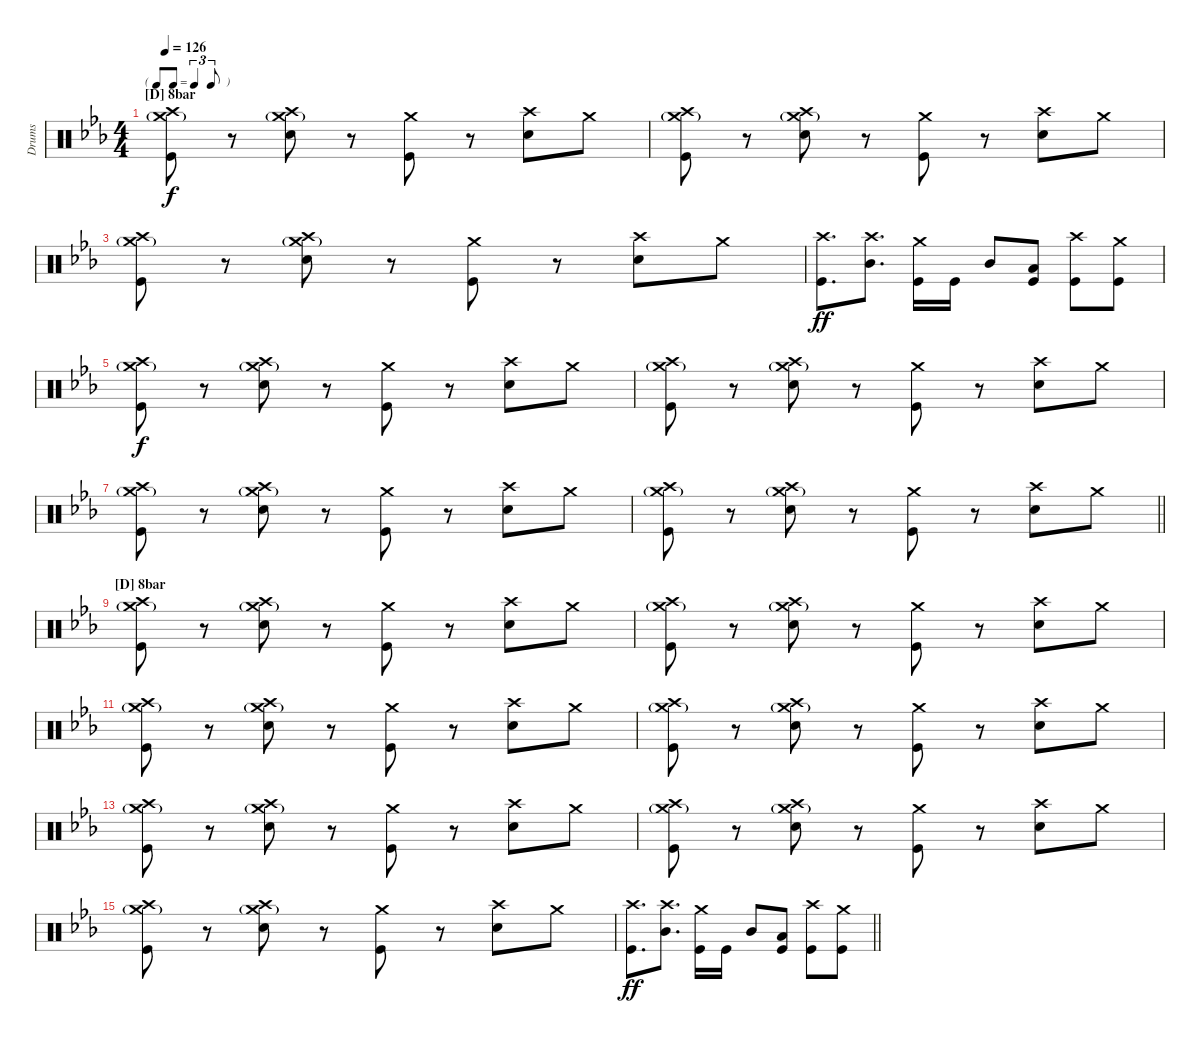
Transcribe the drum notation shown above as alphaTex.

\bracketExtendMode nobrackets
\otherSystemsTrackNameOrientation horizontal
\defaultBarNumberDisplay FirstOfSystem
\track ("Drumkit" "Drums") {instrument percussion}
\staff {score}
\articulation defaults
\ts (4 4)
\tf triplet8th
\section ("D" "8bar")
\tempo 126
\clef neutral
\ks cminor
("Kick (hit)" "Crash medium (hit)"{g} "Crash high (hit)").8{dy f} r.8 ("Snare (hit) 2" "Crash medium (hit)"{g} "Crash high (hit)").8 r.8 ("Kick (hit)" "Crash medium (hit)").8 r.8 ("Snare (hit) 2" "Crash high (hit)").8 "Crash medium (hit)".8 |
("Kick (hit)" "Crash medium (hit)"{g} "Crash high (hit)").8 r.8 ("Snare (hit) 2" "Crash medium (hit)"{g} "Crash high (hit)").8 r.8 ("Kick (hit)" "Crash medium (hit)").8 r.8 ("Snare (hit) 2" "Crash high (hit)").8 "Crash medium (hit)".8 |
("Kick (hit)" "Crash medium (hit)"{g} "Crash high (hit)").8 r.8 ("Snare (hit) 2" "Crash medium (hit)"{g} "Crash high (hit)").8 r.8 ("Kick (hit)" "Crash medium (hit)").8 r.8 ("Snare (hit) 2" "Crash high (hit)").8 "Crash medium (hit)".8 |
("Kick (hit)" "Crash high (hit)").8{d dy ff} ("Mid Tom (hit)" "Crash high (hit)").8{d} ("Kick (hit)" "Crash medium (hit)").16 "Kick (hit)".16 "Mid Tom (hit)".8 ("Low Tom (hit)" "Kick (hit)").8 ("Kick (hit)" "Crash high (hit)").8 ("Kick (hit)" "Crash medium (hit)").8 |
("Kick (hit)" "Crash medium (hit)"{g} "Crash high (hit)").8{dy f} r.8 ("Snare (hit) 2" "Crash medium (hit)"{g} "Crash high (hit)").8 r.8 ("Kick (hit)" "Crash medium (hit)").8 r.8 ("Snare (hit) 2" "Crash high (hit)").8 "Crash medium (hit)".8 |
("Kick (hit)" "Crash medium (hit)"{g} "Crash high (hit)").8 r.8 ("Snare (hit) 2" "Crash medium (hit)"{g} "Crash high (hit)").8 r.8 ("Kick (hit)" "Crash medium (hit)").8 r.8 ("Snare (hit) 2" "Crash high (hit)").8 "Crash medium (hit)".8 |
("Kick (hit)" "Crash medium (hit)"{g} "Crash high (hit)").8 r.8 ("Snare (hit) 2" "Crash medium (hit)"{g} "Crash high (hit)").8 r.8 ("Kick (hit)" "Crash medium (hit)").8 r.8 ("Snare (hit) 2" "Crash high (hit)").8 "Crash medium (hit)".8 |
\barLineRight lightlight
("Kick (hit)" "Crash medium (hit)"{g} "Crash high (hit)").8 r.8 ("Snare (hit) 2" "Crash medium (hit)"{g} "Crash high (hit)").8 r.8 ("Kick (hit)" "Crash medium (hit)").8 r.8 ("Snare (hit) 2" "Crash high (hit)").8 "Crash medium (hit)".8 |
\section ("D" "8bar")
("Kick (hit)" "Crash medium (hit)"{g} "Crash high (hit)").8 r.8 ("Snare (hit) 2" "Crash medium (hit)"{g} "Crash high (hit)").8 r.8 ("Kick (hit)" "Crash medium (hit)").8 r.8 ("Snare (hit) 2" "Crash high (hit)").8 "Crash medium (hit)".8 |
("Kick (hit)" "Crash medium (hit)"{g} "Crash high (hit)").8 r.8 ("Snare (hit) 2" "Crash medium (hit)"{g} "Crash high (hit)").8 r.8 ("Kick (hit)" "Crash medium (hit)").8 r.8 ("Snare (hit) 2" "Crash high (hit)").8 "Crash medium (hit)".8 |
("Kick (hit)" "Crash medium (hit)"{g} "Crash high (hit)").8 r.8 ("Snare (hit) 2" "Crash medium (hit)"{g} "Crash high (hit)").8 r.8 ("Kick (hit)" "Crash medium (hit)").8 r.8 ("Snare (hit) 2" "Crash high (hit)").8 "Crash medium (hit)".8 |
("Kick (hit)" "Crash medium (hit)"{g} "Crash high (hit)").8 r.8 ("Snare (hit) 2" "Crash medium (hit)"{g} "Crash high (hit)").8 r.8 ("Kick (hit)" "Crash medium (hit)").8 r.8 ("Snare (hit) 2" "Crash high (hit)").8 "Crash medium (hit)".8 |
("Kick (hit)" "Crash medium (hit)"{g} "Crash high (hit)").8 r.8 ("Snare (hit) 2" "Crash medium (hit)"{g} "Crash high (hit)").8 r.8 ("Kick (hit)" "Crash medium (hit)").8 r.8 ("Snare (hit) 2" "Crash high (hit)").8 "Crash medium (hit)".8 |
("Kick (hit)" "Crash medium (hit)"{g} "Crash high (hit)").8 r.8 ("Snare (hit) 2" "Crash medium (hit)"{g} "Crash high (hit)").8 r.8 ("Kick (hit)" "Crash medium (hit)").8 r.8 ("Snare (hit) 2" "Crash high (hit)").8 "Crash medium (hit)".8 |
("Kick (hit)" "Crash medium (hit)"{g} "Crash high (hit)").8 r.8 ("Snare (hit) 2" "Crash medium (hit)"{g} "Crash high (hit)").8 r.8 ("Kick (hit)" "Crash medium (hit)").8 r.8 ("Snare (hit) 2" "Crash high (hit)").8 "Crash medium (hit)".8 |
\barLineRight lightlight
("Kick (hit)" "Crash high (hit)").8{d dy ff} ("Mid Tom (hit)" "Crash high (hit)").8{d} ("Kick (hit)" "Crash medium (hit)").16 "Kick (hit)".16 "Mid Tom (hit)".8 ("Low Tom (hit)" "Kick (hit)").8 ("Kick (hit)" "Crash high (hit)").8 ("Kick (hit)" "Crash medium (hit)").8
